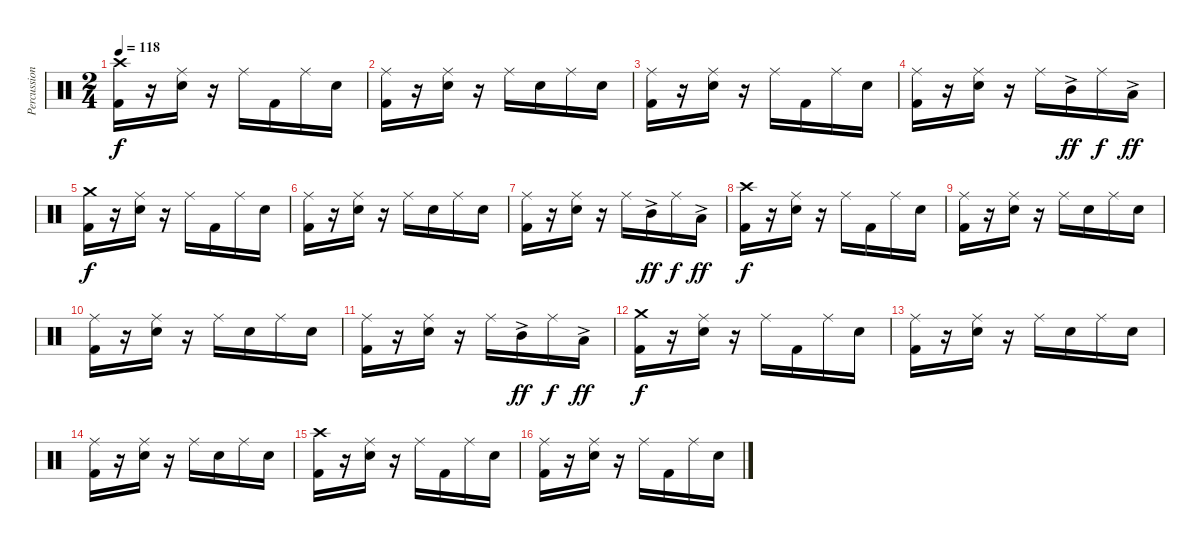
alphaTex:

\track ("Percussion" "Percussion") {instrument percussion}
\staff {score}
\articulation defaults
\ts (2 4)
\tempo 118
\clef neutral
\ks c
("Crash high (hit)" "Kick (hit) 2").16{dy f} r.16 ("Ride (middle)" "Electric Snare (hit)").16 r.16 "Ride (middle)".16 "Kick (hit) 2".16 "Ride (middle)".16 "Electric Snare (hit)".16 |
("Ride (middle)" "Kick (hit) 2").16 r.16 ("Ride (middle)" "Electric Snare (hit)").16 r.16 "Ride (middle)".16 "Electric Snare (hit)".16 "Ride (middle)".16 "Electric Snare (hit)".16 |
("Ride (middle)" "Kick (hit) 2").16 r.16 ("Ride (middle)" "Electric Snare (hit)").16 r.16 "Ride (middle)".16 "Kick (hit) 2".16 "Ride (middle)".16 "Electric Snare (hit)".16 |
("Ride (middle)" "Kick (hit) 2").16 r.16 ("Ride (middle)" "Electric Snare (hit)").16 r.16 "Ride (middle)".16 "Mid Tom (hit)"{ac}.16{dy ff} "Ride (middle)".16{dy f} "Low Tom (hit)"{ac}.16{dy ff} |
("Crash medium (hit)" "Kick (hit) 2").16{dy f} r.16 ("Ride (middle)" "Electric Snare (hit)").16 r.16 "Ride (middle)".16 "Kick (hit) 2".16 "Ride (middle)".16 "Electric Snare (hit)".16 |
("Ride (middle)" "Kick (hit) 2").16 r.16 ("Ride (middle)" "Electric Snare (hit)").16 r.16 "Ride (middle)".16 "Electric Snare (hit)".16 "Ride (middle)".16 "Electric Snare (hit)".16 |
("Ride (middle)" "Kick (hit) 2").16 r.16 ("Ride (middle)" "Electric Snare (hit)").16 r.16 "Ride (middle)".16 "Mid Tom (hit)"{ac}.16{dy ff} "Ride (middle)".16{dy f} "Low Tom (hit)"{ac}.16{dy ff} |
("Crash high (hit)" "Kick (hit) 2").16{dy f} r.16 ("Ride (middle)" "Electric Snare (hit)").16 r.16 "Ride (middle)".16 "Kick (hit) 2".16 "Ride (middle)".16 "Electric Snare (hit)".16 |
("Ride (middle)" "Kick (hit) 2").16 r.16 ("Ride (middle)" "Electric Snare (hit)").16 r.16 "Ride (middle)".16 "Electric Snare (hit)".16 "Ride (middle)".16 "Electric Snare (hit)".16 |
("Ride (middle)" "Kick (hit) 2").16 r.16 ("Ride (middle)" "Electric Snare (hit)").16 r.16 "Ride (middle)".16 "Electric Snare (hit)".16 "Ride (middle)".16 "Electric Snare (hit)".16 |
("Ride (middle)" "Kick (hit) 2").16 r.16 ("Ride (middle)" "Electric Snare (hit)").16 r.16 "Ride (middle)".16 "Mid Tom (hit)"{ac}.16{dy ff} "Ride (middle)".16{dy f} "Low Tom (hit)"{ac}.16{dy ff} |
("Crash medium (hit)" "Kick (hit) 2").16{dy f} r.16 ("Ride (middle)" "Electric Snare (hit)").16 r.16 "Ride (middle)".16 "Kick (hit) 2".16 "Ride (middle)".16 "Electric Snare (hit)".16 |
("Ride (middle)" "Kick (hit) 2").16 r.16 ("Ride (middle)" "Electric Snare (hit)").16 r.16 "Ride (middle)".16 "Electric Snare (hit)".16 "Ride (middle)".16 "Electric Snare (hit)".16 |
("Ride (middle)" "Kick (hit) 2").16 r.16 ("Ride (middle)" "Electric Snare (hit)").16 r.16 "Ride (middle)".16 "Electric Snare (hit)".16 "Ride (middle)".16 "Electric Snare (hit)".16 |
("Crash high (hit)" "Kick (hit) 2").16 r.16 ("Ride (middle)" "Electric Snare (hit)").16 r.16 "Ride (middle)".16 "Kick (hit) 2".16 "Ride (middle)".16 "Electric Snare (hit)".16 |
("Ride (middle)" "Kick (hit) 2").16 r.16 ("Ride (middle)" "Electric Snare (hit)").16 r.16 "Ride (middle)".16 "Kick (hit) 2".16 "Ride (middle)".16 "Electric Snare (hit)".16
